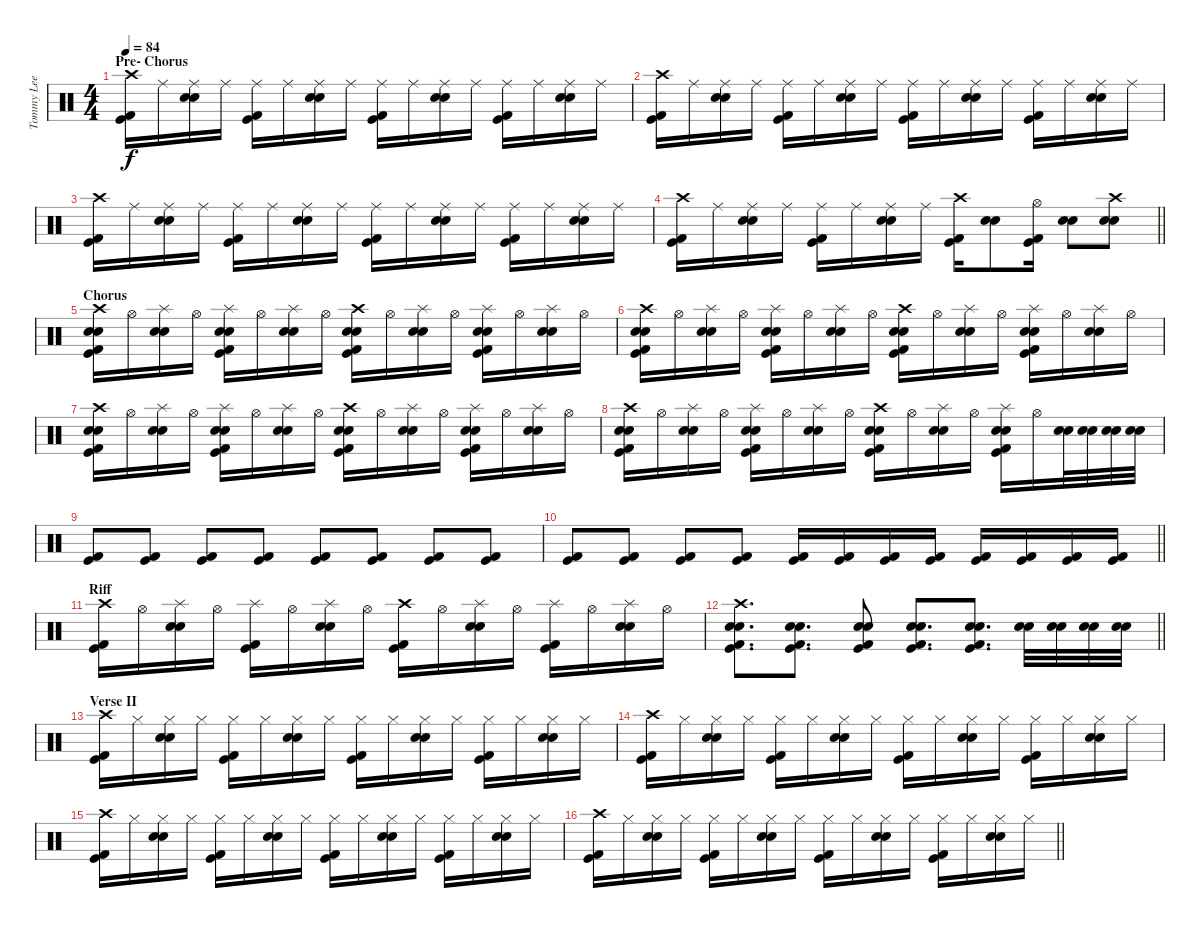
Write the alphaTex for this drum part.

\track ("Tommy Lee" "Tommy Lee") {instrument percussion}
\staff {score}
\articulation defaults
\ts (4 4)
\section ("" "Pre- Chorus")
\tempo 84
\clef neutral
\ks c
("Crash high (hit)" "Kick (hit) 2" "Kick (hit)").16{dy f} "Ride (middle)".16 ("Ride (middle)" "Electric Snare (hit)" "Snare (hit) 2").16 "Ride (middle)".16 ("Ride (middle)" "Kick (hit) 2" "Kick (hit)").16 "Ride (middle)".16 ("Ride (middle)" "Electric Snare (hit)" "Snare (hit) 2").16 "Ride (middle)".16 ("Ride (middle)" "Kick (hit) 2" "Kick (hit)").16 "Ride (middle)".16 ("Ride (middle)" "Electric Snare (hit)" "Snare (hit) 2").16 "Ride (middle)".16 ("Ride (middle)" "Kick (hit) 2" "Kick (hit)").16 "Ride (middle)".16 ("Ride (middle)" "Electric Snare (hit)" "Snare (hit) 2").16 "Ride (middle)".16 |
("Crash high (hit)" "Kick (hit) 2" "Kick (hit)").16 "Ride (middle)".16 ("Ride (middle)" "Electric Snare (hit)" "Snare (hit) 2").16 "Ride (middle)".16 ("Ride (middle)" "Kick (hit) 2" "Kick (hit)").16 "Ride (middle)".16 ("Ride (middle)" "Electric Snare (hit)" "Snare (hit) 2").16 "Ride (middle)".16 ("Ride (middle)" "Kick (hit) 2" "Kick (hit)").16 "Ride (middle)".16 ("Ride (middle)" "Electric Snare (hit)" "Snare (hit) 2").16 "Ride (middle)".16 ("Ride (middle)" "Kick (hit) 2" "Kick (hit)").16 "Ride (middle)".16 ("Ride (middle)" "Electric Snare (hit)" "Snare (hit) 2").16 "Ride (middle)".16 |
("Crash high (hit)" "Kick (hit) 2" "Kick (hit)").16 "Ride (middle)".16 ("Ride (middle)" "Electric Snare (hit)" "Snare (hit) 2").16 "Ride (middle)".16 ("Ride (middle)" "Kick (hit) 2" "Kick (hit)").16 "Ride (middle)".16 ("Ride (middle)" "Electric Snare (hit)" "Snare (hit) 2").16 "Ride (middle)".16 ("Ride (middle)" "Kick (hit) 2" "Kick (hit)").16 "Ride (middle)".16 ("Ride (middle)" "Electric Snare (hit)" "Snare (hit) 2").16 "Ride (middle)".16 ("Ride (middle)" "Kick (hit) 2" "Kick (hit)").16 "Ride (middle)".16 ("Ride (middle)" "Electric Snare (hit)" "Snare (hit) 2").16 "Ride (middle)".16 |
\barLineRight lightlight
("Crash high (hit)" "Kick (hit) 2" "Kick (hit)").16 "Ride (middle)".16 ("Ride (middle)" "Electric Snare (hit)" "Snare (hit) 2").16 "Ride (middle)".16 ("Ride (middle)" "Kick (hit) 2" "Kick (hit)").16 "Ride (middle)".16 ("Ride (middle)" "Electric Snare (hit)" "Snare (hit) 2").16 "Ride (middle)".16 ("Crash high (hit)" "Kick (hit) 2" "Kick (hit)").16 ("Electric Snare (hit)" "Snare (hit) 2").8 ("Hi-Hat (open)" "Kick (hit) 2" "Kick (hit)").16 ("Electric Snare (hit)" "Snare (hit) 2").8 ("Crash high (hit)" "Electric Snare (hit)" "Snare (hit) 2").8 |
\section ("" "Chorus")
("Crash high (hit)" "Electric Snare (hit)" "Snare (hit) 2" "Kick (hit) 2" "Kick (hit)").16 "Hi-Hat (open)".16 ("Splash (hit)" "Electric Snare (hit)" "Snare (hit) 2").16 "Hi-Hat (open)".16 ("Splash (hit)" "Electric Snare (hit)" "Snare (hit) 2" "Kick (hit) 2" "Kick (hit)").16 "Hi-Hat (open)".16 ("Splash (hit)" "Electric Snare (hit)" "Snare (hit) 2").16 "Hi-Hat (open)".16 ("Crash high (hit)" "Electric Snare (hit)" "Snare (hit) 2" "Kick (hit) 2" "Kick (hit)").16 "Hi-Hat (open)".16 ("Splash (hit)" "Electric Snare (hit)" "Snare (hit) 2").16 "Hi-Hat (open)".16 ("Splash (hit)" "Electric Snare (hit)" "Snare (hit) 2" "Kick (hit) 2" "Kick (hit)").16 "Hi-Hat (open)".16 ("Splash (hit)" "Electric Snare (hit)" "Snare (hit) 2").16 "Hi-Hat (open)".16 |
("Crash high (hit)" "Electric Snare (hit)" "Snare (hit) 2" "Kick (hit) 2" "Kick (hit)").16 "Hi-Hat (open)".16 ("Splash (hit)" "Electric Snare (hit)" "Snare (hit) 2").16 "Hi-Hat (open)".16 ("Splash (hit)" "Electric Snare (hit)" "Snare (hit) 2" "Kick (hit) 2" "Kick (hit)").16 "Hi-Hat (open)".16 ("Splash (hit)" "Electric Snare (hit)" "Snare (hit) 2").16 "Hi-Hat (open)".16 ("Crash high (hit)" "Electric Snare (hit)" "Snare (hit) 2" "Kick (hit) 2" "Kick (hit)").16 "Hi-Hat (open)".16 ("Splash (hit)" "Electric Snare (hit)" "Snare (hit) 2").16 "Hi-Hat (open)".16 ("Splash (hit)" "Electric Snare (hit)" "Snare (hit) 2" "Kick (hit) 2" "Kick (hit)").16 "Hi-Hat (open)".16 ("Splash (hit)" "Electric Snare (hit)" "Snare (hit) 2").16 "Hi-Hat (open)".16 |
("Crash high (hit)" "Electric Snare (hit)" "Snare (hit) 2" "Kick (hit) 2" "Kick (hit)").16 "Hi-Hat (open)".16 ("Splash (hit)" "Electric Snare (hit)" "Snare (hit) 2").16 "Hi-Hat (open)".16 ("Splash (hit)" "Electric Snare (hit)" "Snare (hit) 2" "Kick (hit) 2" "Kick (hit)").16 "Hi-Hat (open)".16 ("Splash (hit)" "Electric Snare (hit)" "Snare (hit) 2").16 "Hi-Hat (open)".16 ("Crash high (hit)" "Electric Snare (hit)" "Snare (hit) 2" "Kick (hit) 2" "Kick (hit)").16 "Hi-Hat (open)".16 ("Splash (hit)" "Electric Snare (hit)" "Snare (hit) 2").16 "Hi-Hat (open)".16 ("Splash (hit)" "Electric Snare (hit)" "Snare (hit) 2" "Kick (hit) 2" "Kick (hit)").16 "Hi-Hat (open)".16 ("Splash (hit)" "Electric Snare (hit)" "Snare (hit) 2").16 "Hi-Hat (open)".16 |
("Crash high (hit)" "Electric Snare (hit)" "Snare (hit) 2" "Kick (hit) 2" "Kick (hit)").16 "Hi-Hat (open)".16 ("Splash (hit)" "Electric Snare (hit)" "Snare (hit) 2").16 "Hi-Hat (open)".16 ("Splash (hit)" "Electric Snare (hit)" "Snare (hit) 2" "Kick (hit) 2" "Kick (hit)").16 "Hi-Hat (open)".16 ("Splash (hit)" "Electric Snare (hit)" "Snare (hit) 2").16 "Hi-Hat (open)".16 ("Crash high (hit)" "Electric Snare (hit)" "Snare (hit) 2" "Kick (hit) 2" "Kick (hit)").16 "Hi-Hat (open)".16 ("Splash (hit)" "Electric Snare (hit)" "Snare (hit) 2").16 "Hi-Hat (open)".16 ("Splash (hit)" "Electric Snare (hit)" "Snare (hit) 2" "Kick (hit) 2" "Kick (hit)").16 "Hi-Hat (open)".16 ("Electric Snare (hit)" "Snare (hit) 2").32 ("Electric Snare (hit)" "Snare (hit) 2").32 ("Electric Snare (hit)" "Snare (hit) 2").32 ("Electric Snare (hit)" "Snare (hit) 2").32 |
("Kick (hit) 2" "Kick (hit)").8 ("Kick (hit) 2" "Kick (hit)").8 ("Kick (hit) 2" "Kick (hit)").8 ("Kick (hit) 2" "Kick (hit)").8 ("Kick (hit) 2" "Kick (hit)").8 ("Kick (hit) 2" "Kick (hit)").8 ("Kick (hit) 2" "Kick (hit)").8 ("Kick (hit) 2" "Kick (hit)").8 |
\barLineRight lightlight
("Kick (hit) 2" "Kick (hit)").8 ("Kick (hit) 2" "Kick (hit)").8 ("Kick (hit) 2" "Kick (hit)").8 ("Kick (hit) 2" "Kick (hit)").8 ("Kick (hit) 2" "Kick (hit)").16 ("Kick (hit) 2" "Kick (hit)").16 ("Kick (hit) 2" "Kick (hit)").16 ("Kick (hit) 2" "Kick (hit)").16 ("Kick (hit) 2" "Kick (hit)").16 ("Kick (hit) 2" "Kick (hit)").16 ("Kick (hit) 2" "Kick (hit)").16 ("Kick (hit) 2" "Kick (hit)").16 |
\section ("" "Riff")
("Crash high (hit)" "Kick (hit) 2" "Kick (hit)").16 "Hi-Hat (open)".16 ("Splash (hit)" "Electric Snare (hit)" "Snare (hit) 2").16 "Hi-Hat (open)".16 ("Splash (hit)" "Kick (hit) 2" "Kick (hit)").16 "Hi-Hat (open)".16 ("Splash (hit)" "Electric Snare (hit)" "Snare (hit) 2").16 "Hi-Hat (open)".16 ("Crash high (hit)" "Kick (hit) 2" "Kick (hit)").16 "Hi-Hat (open)".16 ("Splash (hit)" "Electric Snare (hit)" "Snare (hit) 2").16 "Hi-Hat (open)".16 ("Splash (hit)" "Kick (hit) 2" "Kick (hit)").16 "Hi-Hat (open)".16 ("Splash (hit)" "Electric Snare (hit)" "Snare (hit) 2").16 "Hi-Hat (open)".16 |
\barLineRight lightlight
("Crash high (hit)" "Electric Snare (hit)" "Snare (hit) 2" "Kick (hit) 2" "Kick (hit)").8{d} ("Electric Snare (hit)" "Snare (hit) 2" "Kick (hit) 2" "Kick (hit)").8{d} ("Electric Snare (hit)" "Snare (hit) 2" "Kick (hit) 2" "Kick (hit)").8 ("Electric Snare (hit)" "Snare (hit) 2" "Kick (hit) 2" "Kick (hit)").8{d} ("Electric Snare (hit)" "Snare (hit) 2" "Kick (hit) 2" "Kick (hit)").8{d} ("Electric Snare (hit)" "Snare (hit) 2").32 ("Electric Snare (hit)" "Snare (hit) 2").32 ("Electric Snare (hit)" "Snare (hit) 2").32 ("Electric Snare (hit)" "Snare (hit) 2").32 |
\section ("" "Verse II")
("Crash high (hit)" "Kick (hit) 2" "Kick (hit)").16 "Hi-Hat (closed)".16 ("Hi-Hat (closed)" "Electric Snare (hit)" "Snare (hit) 2").16 "Hi-Hat (closed)".16 ("Hi-Hat (closed)" "Kick (hit) 2" "Kick (hit)").16 "Hi-Hat (closed)".16 ("Hi-Hat (closed)" "Electric Snare (hit)" "Snare (hit) 2").16 "Hi-Hat (closed)".16 ("Hi-Hat (closed)" "Kick (hit) 2" "Kick (hit)").16 "Hi-Hat (closed)".16 ("Hi-Hat (closed)" "Electric Snare (hit)" "Snare (hit) 2").16 "Hi-Hat (closed)".16 ("Hi-Hat (closed)" "Kick (hit) 2" "Kick (hit)").16 "Hi-Hat (closed)".16 ("Hi-Hat (closed)" "Electric Snare (hit)" "Snare (hit) 2").16 "Hi-Hat (closed)".16 |
("Crash high (hit)" "Kick (hit) 2" "Kick (hit)").16 "Hi-Hat (closed)".16 ("Hi-Hat (closed)" "Electric Snare (hit)" "Snare (hit) 2").16 "Hi-Hat (closed)".16 ("Hi-Hat (closed)" "Kick (hit) 2" "Kick (hit)").16 "Hi-Hat (closed)".16 ("Hi-Hat (closed)" "Electric Snare (hit)" "Snare (hit) 2").16 "Hi-Hat (closed)".16 ("Hi-Hat (closed)" "Kick (hit) 2" "Kick (hit)").16 "Hi-Hat (closed)".16 ("Hi-Hat (closed)" "Electric Snare (hit)" "Snare (hit) 2").16 "Hi-Hat (closed)".16 ("Hi-Hat (closed)" "Kick (hit) 2" "Kick (hit)").16 "Hi-Hat (closed)".16 ("Hi-Hat (closed)" "Electric Snare (hit)" "Snare (hit) 2").16 "Hi-Hat (closed)".16 |
("Crash high (hit)" "Kick (hit) 2" "Kick (hit)").16 "Hi-Hat (closed)".16 ("Hi-Hat (closed)" "Electric Snare (hit)" "Snare (hit) 2").16 "Hi-Hat (closed)".16 ("Hi-Hat (closed)" "Kick (hit) 2" "Kick (hit)").16 "Hi-Hat (closed)".16 ("Hi-Hat (closed)" "Electric Snare (hit)" "Snare (hit) 2").16 "Hi-Hat (closed)".16 ("Hi-Hat (closed)" "Kick (hit) 2" "Kick (hit)").16 "Hi-Hat (closed)".16 ("Hi-Hat (closed)" "Electric Snare (hit)" "Snare (hit) 2").16 "Hi-Hat (closed)".16 ("Hi-Hat (closed)" "Kick (hit) 2" "Kick (hit)").16 "Hi-Hat (closed)".16 ("Hi-Hat (closed)" "Electric Snare (hit)" "Snare (hit) 2").16 "Hi-Hat (closed)".16 |
\barLineRight lightlight
("Crash high (hit)" "Kick (hit) 2" "Kick (hit)").16 "Hi-Hat (closed)".16 ("Hi-Hat (closed)" "Electric Snare (hit)" "Snare (hit) 2").16 "Hi-Hat (closed)".16 ("Hi-Hat (closed)" "Kick (hit) 2" "Kick (hit)").16 "Hi-Hat (closed)".16 ("Hi-Hat (closed)" "Electric Snare (hit)" "Snare (hit) 2").16 "Hi-Hat (closed)".16 ("Hi-Hat (closed)" "Kick (hit) 2" "Kick (hit)").16 "Hi-Hat (closed)".16 ("Hi-Hat (closed)" "Electric Snare (hit)" "Snare (hit) 2").16 "Hi-Hat (closed)".16 ("Hi-Hat (closed)" "Kick (hit) 2" "Kick (hit)").16 "Hi-Hat (closed)".16 ("Hi-Hat (closed)" "Electric Snare (hit)" "Snare (hit) 2").16 "Hi-Hat (closed)".16
